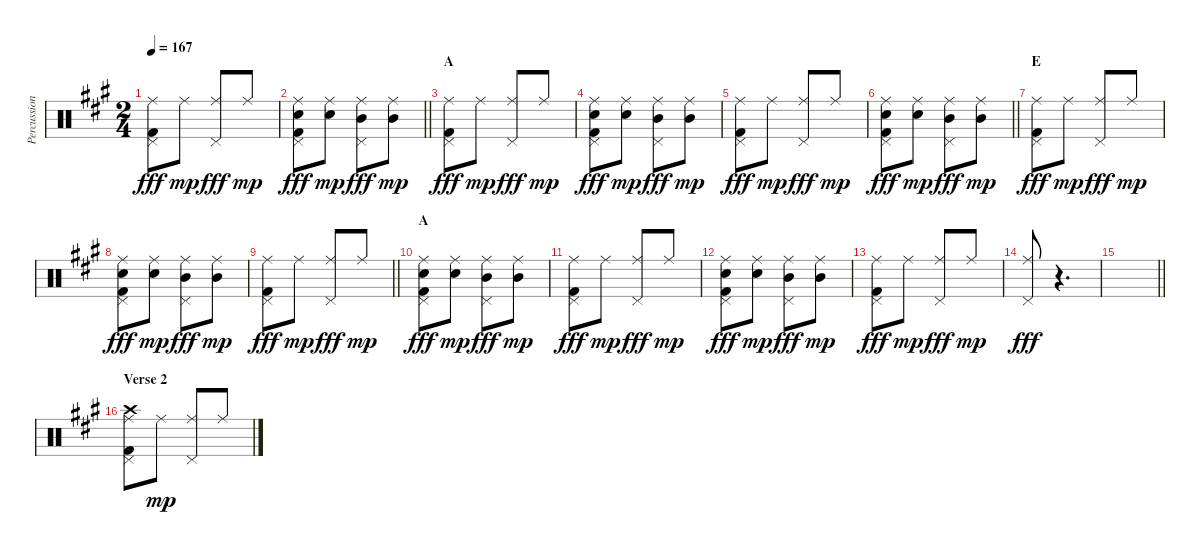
\track ("Percussion" "Percussion") {instrument percussion}
\staff {score}
\articulation defaults
\ts (2 4)
\tempo 167
\clef neutral
\ks a
("Ride (middle)" "Pedal Hi-Hat (hit)" "Kick (hit) 2").8{dy fff} "Ride (middle)".8{dy mp} ("Ride (middle)" "Pedal Hi-Hat (hit)").8{dy fff} "Ride (middle)".8{dy mp} |
\barLineRight lightlight
("Ride (middle)" "Snare (hit) 2" "Pedal Hi-Hat (hit)" "Kick (hit) 2").8{dy fff} ("Ride (middle)" "Snare (hit) 2").8{dy mp} ("Ride (middle)" "Mid Tom (hit)" "Pedal Hi-Hat (hit)").8{dy fff} ("Ride (middle)" "Mid Tom (hit)").8{dy mp} |
\section ("" "A")
("Ride (middle)" "Pedal Hi-Hat (hit)" "Kick (hit) 2").8{dy fff} "Ride (middle)".8{dy mp} ("Ride (middle)" "Pedal Hi-Hat (hit)").8{dy fff} "Ride (middle)".8{dy mp} |
("Ride (middle)" "Snare (hit) 2" "Pedal Hi-Hat (hit)" "Kick (hit) 2").8{dy fff} ("Ride (middle)" "Snare (hit) 2").8{dy mp} ("Ride (middle)" "Mid Tom (hit)" "Pedal Hi-Hat (hit)").8{dy fff} ("Ride (middle)" "Mid Tom (hit)").8{dy mp} |
("Ride (middle)" "Pedal Hi-Hat (hit)" "Kick (hit) 2").8{dy fff} "Ride (middle)".8{dy mp} ("Ride (middle)" "Pedal Hi-Hat (hit)").8{dy fff} "Ride (middle)".8{dy mp} |
\barLineRight lightlight
("Ride (middle)" "Snare (hit) 2" "Pedal Hi-Hat (hit)" "Kick (hit) 2").8{dy fff} ("Ride (middle)" "Snare (hit) 2").8{dy mp} ("Ride (middle)" "Mid Tom (hit)" "Pedal Hi-Hat (hit)").8{dy fff} ("Ride (middle)" "Mid Tom (hit)").8{dy mp} |
\section ("" "E")
("Ride (middle)" "Pedal Hi-Hat (hit)" "Kick (hit) 2").8{dy fff} "Ride (middle)".8{dy mp} ("Ride (middle)" "Pedal Hi-Hat (hit)").8{dy fff} "Ride (middle)".8{dy mp} |
("Ride (middle)" "Snare (hit) 2" "Pedal Hi-Hat (hit)" "Kick (hit) 2").8{dy fff} ("Ride (middle)" "Snare (hit) 2").8{dy mp} ("Ride (middle)" "Mid Tom (hit)" "Pedal Hi-Hat (hit)").8{dy fff} ("Ride (middle)" "Mid Tom (hit)").8{dy mp} |
\barLineRight lightlight
("Ride (middle)" "Pedal Hi-Hat (hit)" "Kick (hit) 2").8{dy fff} "Ride (middle)".8{dy mp} ("Ride (middle)" "Pedal Hi-Hat (hit)").8{dy fff} "Ride (middle)".8{dy mp} |
\section ("" "A")
("Ride (middle)" "Snare (hit) 2" "Pedal Hi-Hat (hit)" "Kick (hit) 2").8{dy fff} ("Ride (middle)" "Snare (hit) 2").8{dy mp} ("Ride (middle)" "Mid Tom (hit)" "Pedal Hi-Hat (hit)").8{dy fff} ("Ride (middle)" "Mid Tom (hit)").8{dy mp} |
("Ride (middle)" "Pedal Hi-Hat (hit)" "Kick (hit) 2").8{dy fff} "Ride (middle)".8{dy mp} ("Ride (middle)" "Pedal Hi-Hat (hit)").8{dy fff} "Ride (middle)".8{dy mp} |
("Ride (middle)" "Snare (hit) 2" "Pedal Hi-Hat (hit)" "Kick (hit) 2").8{dy fff} ("Ride (middle)" "Snare (hit) 2").8{dy mp} ("Ride (middle)" "Mid Tom (hit)" "Pedal Hi-Hat (hit)").8{dy fff} ("Ride (middle)" "Mid Tom (hit)").8{dy mp} |
("Ride (middle)" "Pedal Hi-Hat (hit)" "Kick (hit) 2").8{dy fff} "Ride (middle)".8{dy mp} ("Ride (middle)" "Pedal Hi-Hat (hit)").8{dy fff} "Ride (middle)".8{dy mp} |
("Ride (middle)" "Pedal Hi-Hat (hit)").8{dy fff} r.4{d} |
\barLineRight lightlight
|
\section ("" "Verse 2")
("Ride (middle)" "Crash high (hit)" "Pedal Hi-Hat (hit)" "Kick (hit) 2").8 "Ride (middle)".8{dy mp} ("Ride (middle)" "Pedal Hi-Hat (hit)").8 "Ride (middle)".8
